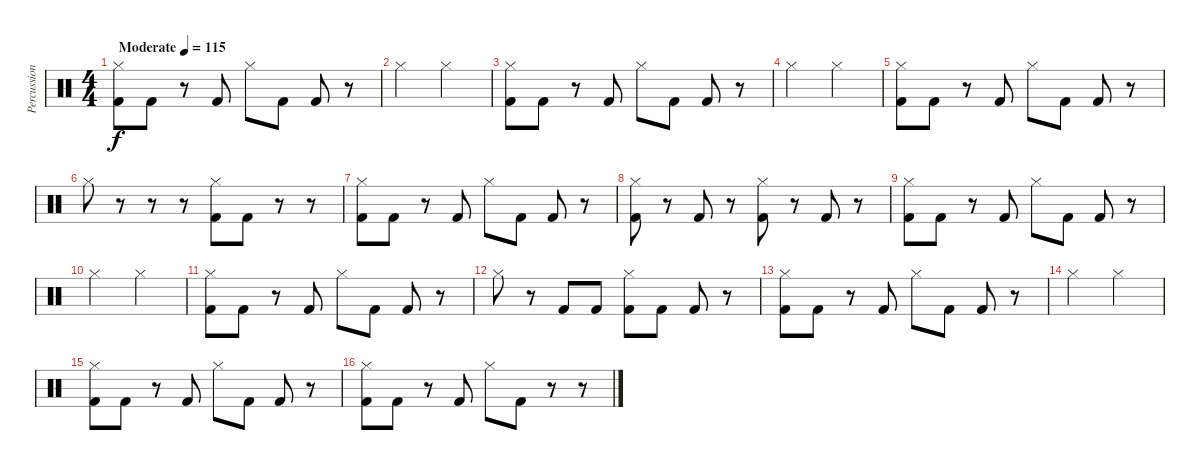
\track ("Percussions" "Percussion") {instrument percussion}
\staff {score}
\articulation defaults
\ts (4 4)
\tempo (115 "Moderate")
\clef neutral
\ks c
("Hi-Hat (closed)" "Kick (hit) 2").8{dy f} "Kick (hit) 2".8 r.8 "Kick (hit) 2".8 "Hi-Hat (closed)".8 "Kick (hit) 2".8 "Kick (hit) 2".8 r.8 |
"Hi-Hat (closed)".2 "Hi-Hat (closed)".2 |
("Hi-Hat (closed)" "Kick (hit) 2").8 "Kick (hit) 2".8 r.8 "Kick (hit) 2".8 "Hi-Hat (closed)".8 "Kick (hit) 2".8 "Kick (hit) 2".8 r.8 |
"Hi-Hat (closed)".2 "Hi-Hat (closed)".2 |
("Hi-Hat (closed)" "Kick (hit) 2").8 "Kick (hit) 2".8 r.8 "Kick (hit) 2".8 "Hi-Hat (closed)".8 "Kick (hit) 2".8 "Kick (hit) 2".8 r.8 |
"Hi-Hat (closed)".8 r.8 r.8 r.8 ("Hi-Hat (closed)" "Kick (hit) 2").8 "Kick (hit) 2".8 r.8 r.8 |
("Hi-Hat (closed)" "Kick (hit) 2").8 "Kick (hit) 2".8 r.8 "Kick (hit) 2".8 "Hi-Hat (closed)".8 "Kick (hit) 2".8 "Kick (hit) 2".8 r.8 |
("Hi-Hat (closed)" "Kick (hit) 2").8 r.8 "Kick (hit) 2".8 r.8 ("Hi-Hat (closed)" "Kick (hit) 2").8 r.8 "Kick (hit) 2".8 r.8 |
("Hi-Hat (closed)" "Kick (hit) 2").8 "Kick (hit) 2".8 r.8 "Kick (hit) 2".8 "Hi-Hat (closed)".8 "Kick (hit) 2".8 "Kick (hit) 2".8 r.8 |
"Hi-Hat (closed)".2 "Hi-Hat (closed)".2 |
("Hi-Hat (closed)" "Kick (hit) 2").8 "Kick (hit) 2".8 r.8 "Kick (hit) 2".8 "Hi-Hat (closed)".8 "Kick (hit) 2".8 "Kick (hit) 2".8 r.8 |
"Hi-Hat (closed)".8 r.8 "Kick (hit) 2".8 "Kick (hit) 2".8 ("Hi-Hat (closed)" "Kick (hit) 2").8 "Kick (hit) 2".8 "Kick (hit) 2".8 r.8 |
("Hi-Hat (closed)" "Kick (hit) 2").8 "Kick (hit) 2".8 r.8 "Kick (hit) 2".8 "Hi-Hat (closed)".8 "Kick (hit) 2".8 "Kick (hit) 2".8 r.8 |
"Hi-Hat (closed)".2 "Hi-Hat (closed)".2 |
("Hi-Hat (closed)" "Kick (hit) 2").8 "Kick (hit) 2".8 r.8 "Kick (hit) 2".8 "Hi-Hat (closed)".8 "Kick (hit) 2".8 "Kick (hit) 2".8 r.8 |
("Hi-Hat (closed)" "Kick (hit) 2").8 "Kick (hit) 2".8 r.8 "Kick (hit) 2".8 "Hi-Hat (closed)".8 "Kick (hit) 2".8 r.8 r.8
